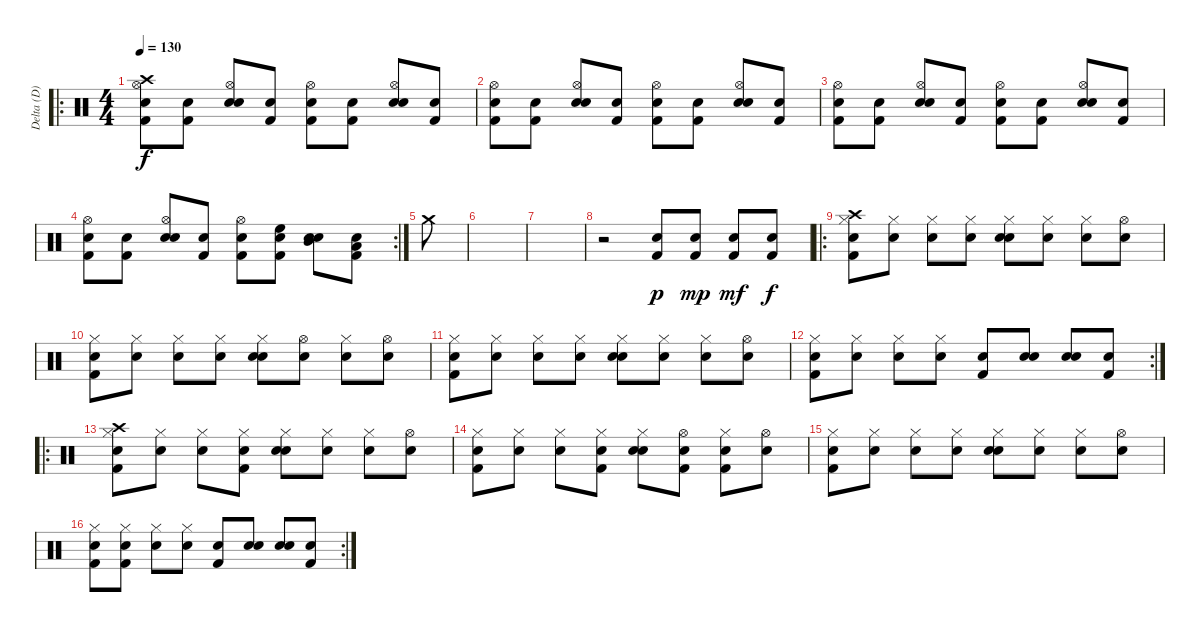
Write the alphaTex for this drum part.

\track ("Delta (D)" "Delta (D)") {instrument percussion}
\staff {score}
\articulation defaults
\ro
\ts (4 4)
\tempo 130
\clef neutral
\ks c
("Snare (hit)"{x} "Kick (hit) 2" "Hi-Hat (open)" "Crash high (hit)").8{dy f} ("Snare (hit)"{x} "Kick (hit) 2").8 ("Snare (hit)"{x} "Electric Snare (hit)" "Hi-Hat (open)").8 ("Snare (hit)"{x} "Kick (hit) 2").8 ("Snare (hit)"{x} "Kick (hit) 2" "Hi-Hat (open)").8 ("Snare (hit)"{x} "Kick (hit) 2").8 ("Snare (hit)"{x} "Electric Snare (hit)" "Hi-Hat (open)").8 ("Snare (hit)"{x} "Kick (hit) 2").8 |
("Snare (hit)"{x} "Kick (hit) 2" "Hi-Hat (open)").8 ("Snare (hit)"{x} "Kick (hit) 2").8 ("Snare (hit)"{x} "Electric Snare (hit)" "Hi-Hat (open)").8 ("Snare (hit)"{x} "Kick (hit) 2").8 ("Snare (hit)"{x} "Kick (hit) 2" "Hi-Hat (open)").8 ("Snare (hit)"{x} "Kick (hit) 2").8 ("Snare (hit)"{x} "Electric Snare (hit)" "Hi-Hat (open)").8 ("Snare (hit)"{x} "Kick (hit) 2").8 |
("Snare (hit)"{x} "Kick (hit) 2" "Hi-Hat (open)").8 ("Snare (hit)"{x} "Kick (hit) 2").8 ("Snare (hit)"{x} "Electric Snare (hit)" "Hi-Hat (open)").8 ("Snare (hit)"{x} "Kick (hit) 2").8 ("Snare (hit)"{x} "Kick (hit) 2" "Hi-Hat (open)").8 ("Snare (hit)"{x} "Kick (hit) 2").8 ("Snare (hit)"{x} "Electric Snare (hit)" "Hi-Hat (open)").8 ("Snare (hit)"{x} "Kick (hit) 2").8 |
\rc 2
("Snare (hit)"{x} "Kick (hit) 2" "Hi-Hat (open)").8 ("Snare (hit)"{x} "Kick (hit) 2").8 ("Snare (hit)"{x} "Electric Snare (hit)" "Hi-Hat (open)").8 ("Snare (hit)"{x} "Kick (hit) 2").8 ("Snare (hit)"{x} "Kick (hit) 2" "Hi-Hat (open)").8 ("Snare (hit)"{x} "Kick (hit) 2" "High Floor Tom (hit)").8 ("Snare (hit)"{x} "Electric Snare (hit)" "Mid Tom (hit)").8 ("Snare (hit)"{x} "Kick (hit) 2" "Low Tom (hit)").8 |
"Crash medium (hit)".8 |
|
|
r.2 ("Electric Snare (hit)" "Kick (hit) 2").8{dy p} ("Electric Snare (hit)" "Kick (hit) 2").8{dy mp} ("Electric Snare (hit)" "Kick (hit) 2").8{dy mf} ("Electric Snare (hit)" "Kick (hit) 2").8{dy f} |
\ro
("Snare (hit)"{x} "Kick (hit) 2" "Hi-Hat (closed)" "Crash high (hit)").8 ("Snare (hit)"{x} "Hi-Hat (closed)").8 ("Snare (hit)"{x} "Hi-Hat (closed)").8 ("Snare (hit)"{x} "Hi-Hat (closed)").8 ("Snare (hit)"{x} "Electric Snare (hit)" "Hi-Hat (closed)").8 ("Snare (hit)"{x} "Hi-Hat (closed)").8 ("Snare (hit)"{x} "Hi-Hat (closed)").8 ("Snare (hit)"{x} "Hi-Hat (open)").8 |
("Snare (hit)"{x} "Kick (hit) 2" "Hi-Hat (closed)").8 ("Snare (hit)"{x} "Hi-Hat (closed)").8 ("Snare (hit)"{x} "Hi-Hat (closed)").8 ("Snare (hit)"{x} "Hi-Hat (closed)").8 ("Snare (hit)"{x} "Electric Snare (hit)" "Hi-Hat (closed)").8 ("Snare (hit)"{x} "Hi-Hat (open)").8 ("Snare (hit)"{x} "Hi-Hat (closed)").8 ("Snare (hit)"{x} "Hi-Hat (open)").8 |
("Snare (hit)"{x} "Kick (hit) 2" "Hi-Hat (closed)").8 ("Snare (hit)"{x} "Hi-Hat (closed)").8 ("Snare (hit)"{x} "Hi-Hat (closed)").8 ("Snare (hit)"{x} "Hi-Hat (closed)").8 ("Snare (hit)"{x} "Electric Snare (hit)" "Hi-Hat (closed)").8 ("Snare (hit)"{x} "Hi-Hat (closed)").8 ("Snare (hit)"{x} "Hi-Hat (closed)").8 ("Snare (hit)"{x} "Hi-Hat (open)").8 |
\rc 2
("Snare (hit)"{x} "Kick (hit) 2" "Hi-Hat (closed)").8 ("Snare (hit)"{x} "Hi-Hat (closed)").8 ("Snare (hit)"{x} "Hi-Hat (closed)").8 ("Snare (hit)"{x} "Hi-Hat (closed)").8 ("Snare (hit)"{x} "Kick (hit) 2").8 ("Snare (hit)"{x} "Electric Snare (hit)").8 ("Snare (hit)"{x} "Electric Snare (hit)").8 ("Snare (hit)"{x} "Kick (hit) 2").8 |
\ro
("Snare (hit)"{x} "Kick (hit) 2" "Hi-Hat (closed)" "Crash high (hit)").8 ("Snare (hit)"{x} "Hi-Hat (closed)").8 ("Snare (hit)"{x} "Hi-Hat (closed)").8 ("Snare (hit)"{x} "Kick (hit) 2" "Hi-Hat (closed)").8 ("Snare (hit)"{x} "Electric Snare (hit)" "Hi-Hat (closed)").8 ("Snare (hit)"{x} "Hi-Hat (closed)").8 ("Snare (hit)"{x} "Hi-Hat (closed)").8 ("Snare (hit)"{x} "Hi-Hat (open)").8 |
("Snare (hit)"{x} "Kick (hit) 2" "Hi-Hat (closed)").8 ("Snare (hit)"{x} "Hi-Hat (closed)").8 ("Snare (hit)"{x} "Hi-Hat (closed)").8 ("Snare (hit)"{x} "Kick (hit) 2" "Hi-Hat (closed)").8 ("Snare (hit)"{x} "Electric Snare (hit)" "Hi-Hat (closed)").8 ("Snare (hit)"{x} "Kick (hit) 2" "Hi-Hat (open)").8 ("Snare (hit)"{x} "Kick (hit) 2" "Hi-Hat (closed)").8 ("Snare (hit)"{x} "Hi-Hat (open)").8 |
("Snare (hit)"{x} "Kick (hit) 2" "Hi-Hat (closed)").8 ("Snare (hit)"{x} "Hi-Hat (closed)").8 ("Snare (hit)"{x} "Hi-Hat (closed)").8 ("Snare (hit)"{x} "Hi-Hat (closed)").8 ("Snare (hit)"{x} "Electric Snare (hit)" "Hi-Hat (closed)").8 ("Snare (hit)"{x} "Hi-Hat (closed)").8 ("Snare (hit)"{x} "Hi-Hat (closed)").8 ("Snare (hit)"{x} "Hi-Hat (open)").8 |
\rc 2
("Snare (hit)"{x} "Kick (hit) 2" "Hi-Hat (closed)").8 ("Snare (hit)"{x} "Kick (hit) 2" "Hi-Hat (closed)").8 ("Snare (hit)"{x} "Hi-Hat (closed)").8 ("Snare (hit)"{x} "Hi-Hat (closed)").8 ("Snare (hit)"{x} "Kick (hit) 2").8 ("Snare (hit)"{x} "Electric Snare (hit)").8 ("Snare (hit)"{x} "Electric Snare (hit)").8 ("Snare (hit)"{x} "Kick (hit) 2").8
